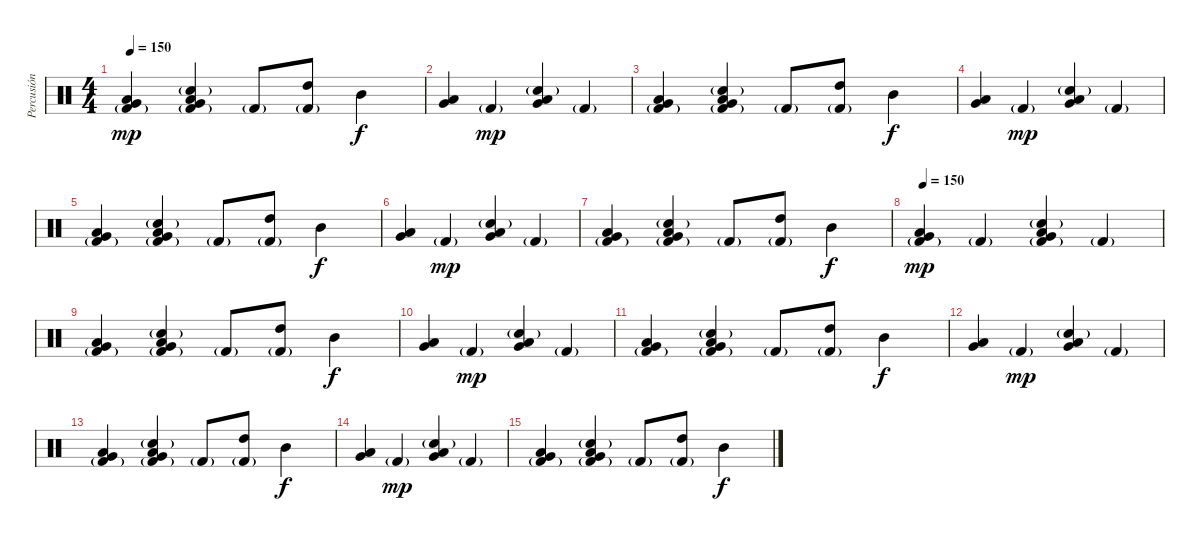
\track ("Percusión" "Percusión") {instrument percussion}
\staff {score}
\articulation defaults
\ts (4 4)
\tempo 150
\clef neutral
\ks c
("Kick (hit) 2"{g} "Very Low Tom (hit)" "Low Floor Tom (hit)").4{dy mp} ("Kick (hit) 2"{g} "Very Low Tom (hit)" "Low Tom (hit)" "Electric Snare (hit)"{g}).4 "Kick (hit) 2"{g}.8 ("Kick (hit) 2"{g} "High Tom (hit)").8 "Mid Tom (hit)".4{dy f} |
("Very Low Tom (hit)" "Low Floor Tom (hit)").4 "Kick (hit) 2"{g}.4{dy mp} ("Very Low Tom (hit)" "Low Tom (hit)" "Electric Snare (hit)"{g}).4 "Kick (hit) 2"{g}.4 |
("Kick (hit) 2"{g} "Very Low Tom (hit)" "Low Floor Tom (hit)").4 ("Kick (hit) 2"{g} "Very Low Tom (hit)" "Low Tom (hit)" "Electric Snare (hit)"{g}).4 "Kick (hit) 2"{g}.8 ("Kick (hit) 2"{g} "High Tom (hit)").8 "Mid Tom (hit)".4{dy f} |
("Very Low Tom (hit)" "Low Floor Tom (hit)").4 "Kick (hit) 2"{g}.4{dy mp} ("Very Low Tom (hit)" "Low Tom (hit)" "Electric Snare (hit)"{g}).4 "Kick (hit) 2"{g}.4 |
("Kick (hit) 2"{g} "Very Low Tom (hit)" "Low Floor Tom (hit)").4 ("Kick (hit) 2"{g} "Very Low Tom (hit)" "Low Tom (hit)" "Electric Snare (hit)"{g}).4 "Kick (hit) 2"{g}.8 ("Kick (hit) 2"{g} "High Tom (hit)").8 "Mid Tom (hit)".4{dy f} |
("Very Low Tom (hit)" "Low Floor Tom (hit)").4 "Kick (hit) 2"{g}.4{dy mp} ("Very Low Tom (hit)" "Low Tom (hit)" "Electric Snare (hit)"{g}).4 "Kick (hit) 2"{g}.4 |
("Kick (hit) 2"{g} "Very Low Tom (hit)" "Low Floor Tom (hit)").4 ("Kick (hit) 2"{g} "Very Low Tom (hit)" "Low Tom (hit)" "Electric Snare (hit)"{g}).4 "Kick (hit) 2"{g}.8 ("Kick (hit) 2"{g} "High Tom (hit)").8 "Mid Tom (hit)".4{dy f} |
\tempo 150
("Kick (hit) 2"{g} "Very Low Tom (hit)" "Low Floor Tom (hit)").4{dy mp} "Kick (hit) 2"{g}.4 ("Kick (hit) 2"{g} "Very Low Tom (hit)" "Low Tom (hit)" "Electric Snare (hit)"{g}).4 "Kick (hit) 2"{g}.4 |
("Kick (hit) 2"{g} "Very Low Tom (hit)" "Low Floor Tom (hit)").4 ("Kick (hit) 2"{g} "Very Low Tom (hit)" "Low Tom (hit)" "Electric Snare (hit)"{g}).4 "Kick (hit) 2"{g}.8 ("Kick (hit) 2"{g} "High Tom (hit)").8 "Mid Tom (hit)".4{dy f} |
("Very Low Tom (hit)" "Low Floor Tom (hit)").4 "Kick (hit) 2"{g}.4{dy mp} ("Very Low Tom (hit)" "Low Tom (hit)" "Electric Snare (hit)"{g}).4 "Kick (hit) 2"{g}.4 |
("Kick (hit) 2"{g} "Very Low Tom (hit)" "Low Floor Tom (hit)").4 ("Kick (hit) 2"{g} "Very Low Tom (hit)" "Low Tom (hit)" "Electric Snare (hit)"{g}).4 "Kick (hit) 2"{g}.8 ("Kick (hit) 2"{g} "High Tom (hit)").8 "Mid Tom (hit)".4{dy f} |
("Very Low Tom (hit)" "Low Floor Tom (hit)").4 "Kick (hit) 2"{g}.4{dy mp} ("Very Low Tom (hit)" "Low Tom (hit)" "Electric Snare (hit)"{g}).4 "Kick (hit) 2"{g}.4 |
("Kick (hit) 2"{g} "Very Low Tom (hit)" "Low Floor Tom (hit)").4 ("Kick (hit) 2"{g} "Very Low Tom (hit)" "Low Tom (hit)" "Electric Snare (hit)"{g}).4 "Kick (hit) 2"{g}.8 ("Kick (hit) 2"{g} "High Tom (hit)").8 "Mid Tom (hit)".4{dy f} |
("Very Low Tom (hit)" "Low Floor Tom (hit)").4 "Kick (hit) 2"{g}.4{dy mp} ("Very Low Tom (hit)" "Low Tom (hit)" "Electric Snare (hit)"{g}).4 "Kick (hit) 2"{g}.4 |
("Kick (hit) 2"{g} "Very Low Tom (hit)" "Low Floor Tom (hit)").4 ("Kick (hit) 2"{g} "Very Low Tom (hit)" "Low Tom (hit)" "Electric Snare (hit)"{g}).4 "Kick (hit) 2"{g}.8 ("Kick (hit) 2"{g} "High Tom (hit)").8 "Mid Tom (hit)".4{dy f}
